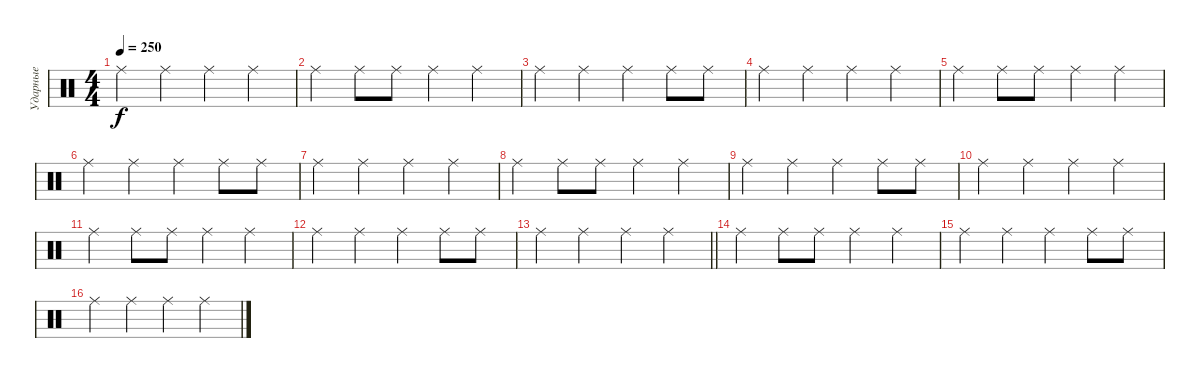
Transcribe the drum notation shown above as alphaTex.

\track ("Ударные" "Ударные") {instrument percussion}
\staff {score}
\articulation defaults
\ts (4 4)
\tempo 250
\clef neutral
\ks c "Ride (middle)".4{dy f} "Ride (middle)".4 "Ride (middle)".4 "Ride (middle)".4
|
"Ride (middle)".4 "Ride (middle)".8 "Ride (middle)".8 "Ride (middle)".4 "Ride (middle)".4 |
"Ride (middle)".4 "Ride (middle)".4 "Ride (middle)".4 "Ride (middle)".8 "Ride (middle)".8 |
"Ride (middle)".4 "Ride (middle)".4 "Ride (middle)".4 "Ride (middle)".4 |
"Ride (middle)".4 "Ride (middle)".8 "Ride (middle)".8 "Ride (middle)".4 "Ride (middle)".4 |
"Ride (middle)".4 "Ride (middle)".4 "Ride (middle)".4 "Ride (middle)".8 "Ride (middle)".8 |
"Ride (middle)".4 "Ride (middle)".4 "Ride (middle)".4 "Ride (middle)".4 |
"Ride (middle)".4 "Ride (middle)".8 "Ride (middle)".8 "Ride (middle)".4 "Ride (middle)".4 |
"Ride (middle)".4 "Ride (middle)".4 "Ride (middle)".4 "Ride (middle)".8 "Ride (middle)".8 |
"Ride (middle)".4 "Ride (middle)".4 "Ride (middle)".4 "Ride (middle)".4 |
"Ride (middle)".4 "Ride (middle)".8 "Ride (middle)".8 "Ride (middle)".4 "Ride (middle)".4 |
"Ride (middle)".4 "Ride (middle)".4 "Ride (middle)".4 "Ride (middle)".8 "Ride (middle)".8 |
\barLineRight lightlight "Ride (middle)".4 "Ride (middle)".4 "Ride (middle)".4 "Ride (middle)".4
|
"Ride (middle)".4 "Ride (middle)".8 "Ride (middle)".8 "Ride (middle)".4 "Ride (middle)".4 |
"Ride (middle)".4 "Ride (middle)".4 "Ride (middle)".4 "Ride (middle)".8 "Ride (middle)".8 |
"Ride (middle)".4 "Ride (middle)".4 "Ride (middle)".4 "Ride (middle)".4
